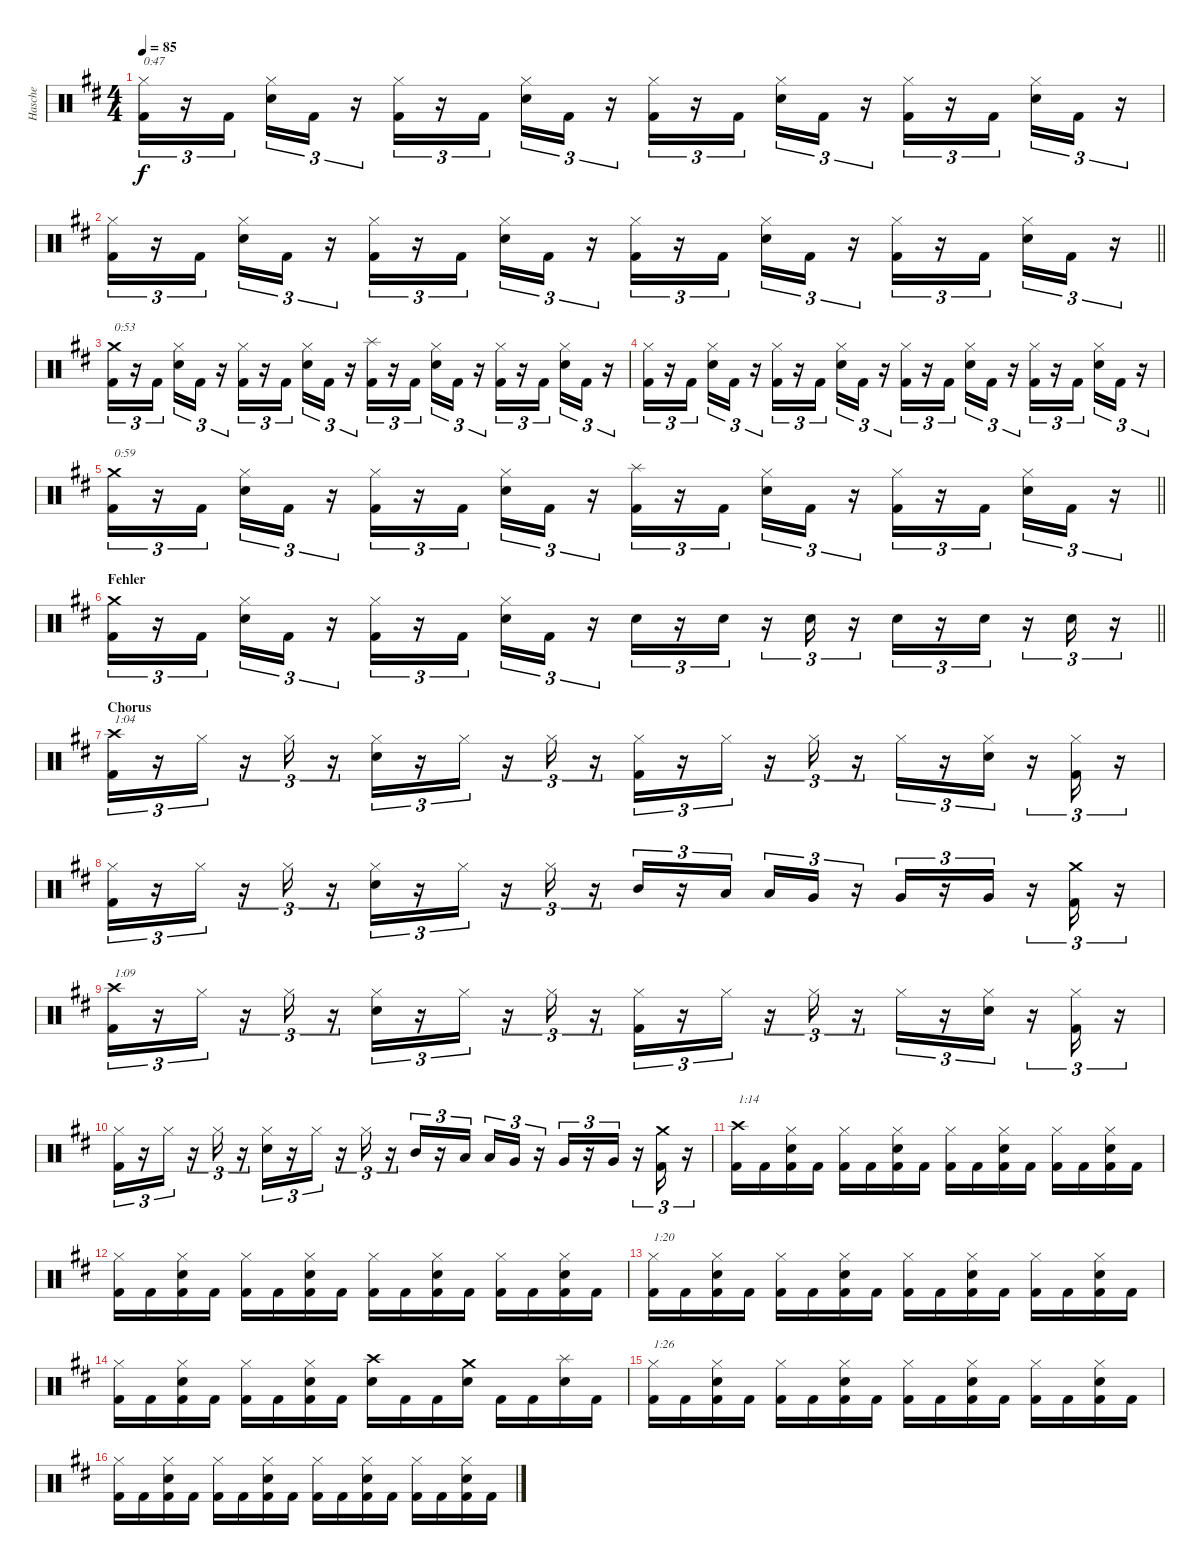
\track ("Hasche" "Hasche") {instrument percussion}
\staff {score}
\articulation defaults
\ts (4 4)
\tempo 85
\clef neutral
\ks bminor
("Hi-Hat (closed)" "Kick (hit) 2").16{tu (3 2) txt "0:47" dy f} r.16{tu (3 2)} "Kick (hit) 2".16{tu (3 2) beam splitsecondary} ("Hi-Hat (closed)" "Snare (hit) 2").16{tu (3 2)} "Kick (hit) 2".16{tu (3 2)} r.16{tu (3 2)} ("Hi-Hat (closed)" "Kick (hit) 2").16{tu (3 2)} r.16{tu (3 2)} "Kick (hit) 2".16{tu (3 2) beam splitsecondary} ("Hi-Hat (closed)" "Snare (hit) 2").16{tu (3 2)} "Kick (hit) 2".16{tu (3 2)} r.16{tu (3 2)} ("Hi-Hat (closed)" "Kick (hit) 2").16{tu (3 2)} r.16{tu (3 2)} "Kick (hit) 2".16{tu (3 2) beam splitsecondary} ("Hi-Hat (closed)" "Snare (hit) 2").16{tu (3 2)} "Kick (hit) 2".16{tu (3 2)} r.16{tu (3 2)} ("Hi-Hat (closed)" "Kick (hit) 2").16{tu (3 2)} r.16{tu (3 2)} "Kick (hit) 2".16{tu (3 2) beam splitsecondary} ("Hi-Hat (closed)" "Snare (hit) 2").16{tu (3 2)} "Kick (hit) 2".16{tu (3 2)} r.16{tu (3 2)} |
\barLineRight lightlight
("Hi-Hat (closed)" "Kick (hit) 2").16{tu (3 2)} r.16{tu (3 2)} "Kick (hit) 2".16{tu (3 2) beam splitsecondary} ("Hi-Hat (closed)" "Snare (hit) 2").16{tu (3 2)} "Kick (hit) 2".16{tu (3 2)} r.16{tu (3 2)} ("Hi-Hat (closed)" "Kick (hit) 2").16{tu (3 2)} r.16{tu (3 2)} "Kick (hit) 2".16{tu (3 2) beam splitsecondary} ("Hi-Hat (closed)" "Snare (hit) 2").16{tu (3 2)} "Kick (hit) 2".16{tu (3 2)} r.16{tu (3 2)} ("Hi-Hat (closed)" "Kick (hit) 2").16{tu (3 2)} r.16{tu (3 2)} "Kick (hit) 2".16{tu (3 2) beam splitsecondary} ("Hi-Hat (closed)" "Snare (hit) 2").16{tu (3 2)} "Kick (hit) 2".16{tu (3 2)} r.16{tu (3 2)} ("Hi-Hat (closed)" "Kick (hit) 2").16{tu (3 2)} r.16{tu (3 2)} "Kick (hit) 2".16{tu (3 2) beam splitsecondary} ("Hi-Hat (closed)" "Snare (hit) 2").16{tu (3 2)} "Kick (hit) 2".16{tu (3 2)} r.16{tu (3 2)} |
("Crash medium (hit)" "Kick (hit) 2").16{tu (3 2) txt "0:53"} r.16{tu (3 2)} "Kick (hit) 2".16{tu (3 2) beam splitsecondary} ("Hi-Hat (closed)" "Snare (hit) 2").16{tu (3 2)} "Kick (hit) 2".16{tu (3 2)} r.16{tu (3 2)} ("Hi-Hat (closed)" "Kick (hit) 2").16{tu (3 2)} r.16{tu (3 2)} "Kick (hit) 2".16{tu (3 2) beam splitsecondary} ("Hi-Hat (closed)" "Snare (hit) 2").16{tu (3 2)} "Kick (hit) 2".16{tu (3 2)} r.16{tu (3 2)} ("Splash (hit)" "Kick (hit) 2").16{tu (3 2)} r.16{tu (3 2)} "Kick (hit) 2".16{tu (3 2) beam splitsecondary} ("Hi-Hat (closed)" "Snare (hit) 2").16{tu (3 2)} "Kick (hit) 2".16{tu (3 2)} r.16{tu (3 2)} ("Hi-Hat (closed)" "Kick (hit) 2").16{tu (3 2)} r.16{tu (3 2)} "Kick (hit) 2".16{tu (3 2) beam splitsecondary} ("Hi-Hat (closed)" "Snare (hit) 2").16{tu (3 2)} "Kick (hit) 2".16{tu (3 2)} r.16{tu (3 2)} |
("Hi-Hat (closed)" "Kick (hit) 2").16{tu (3 2)} r.16{tu (3 2)} "Kick (hit) 2".16{tu (3 2) beam splitsecondary} ("Hi-Hat (closed)" "Snare (hit) 2").16{tu (3 2)} "Kick (hit) 2".16{tu (3 2)} r.16{tu (3 2)} ("Hi-Hat (closed)" "Kick (hit) 2").16{tu (3 2)} r.16{tu (3 2)} "Kick (hit) 2".16{tu (3 2) beam splitsecondary} ("Hi-Hat (closed)" "Snare (hit) 2").16{tu (3 2)} "Kick (hit) 2".16{tu (3 2)} r.16{tu (3 2)} ("Hi-Hat (closed)" "Kick (hit) 2").16{tu (3 2)} r.16{tu (3 2)} "Kick (hit) 2".16{tu (3 2) beam splitsecondary} ("Hi-Hat (closed)" "Snare (hit) 2").16{tu (3 2)} "Kick (hit) 2".16{tu (3 2)} r.16{tu (3 2)} ("Hi-Hat (closed)" "Kick (hit) 2").16{tu (3 2)} r.16{tu (3 2)} "Kick (hit) 2".16{tu (3 2) beam splitsecondary} ("Hi-Hat (closed)" "Snare (hit) 2").16{tu (3 2)} "Kick (hit) 2".16{tu (3 2)} r.16{tu (3 2)} |
\barLineRight lightlight
("Crash medium (hit)" "Kick (hit) 2").16{tu (3 2) txt "0:59"} r.16{tu (3 2)} "Kick (hit) 2".16{tu (3 2) beam splitsecondary} ("Hi-Hat (closed)" "Snare (hit) 2").16{tu (3 2)} "Kick (hit) 2".16{tu (3 2)} r.16{tu (3 2)} ("Hi-Hat (closed)" "Kick (hit) 2").16{tu (3 2)} r.16{tu (3 2)} "Kick (hit) 2".16{tu (3 2) beam splitsecondary} ("Hi-Hat (closed)" "Snare (hit) 2").16{tu (3 2)} "Kick (hit) 2".16{tu (3 2)} r.16{tu (3 2)} ("Splash (hit)" "Kick (hit) 2").16{tu (3 2)} r.16{tu (3 2)} "Kick (hit) 2".16{tu (3 2) beam splitsecondary} ("Hi-Hat (closed)" "Snare (hit) 2").16{tu (3 2)} "Kick (hit) 2".16{tu (3 2)} r.16{tu (3 2)} ("Hi-Hat (closed)" "Kick (hit) 2").16{tu (3 2)} r.16{tu (3 2)} "Kick (hit) 2".16{tu (3 2) beam splitsecondary} ("Hi-Hat (closed)" "Snare (hit) 2").16{tu (3 2)} "Kick (hit) 2".16{tu (3 2)} r.16{tu (3 2)} |
\section ("" "Fehler")
\barLineRight lightlight
("Crash medium (hit)" "Kick (hit) 2").16{tu (3 2)} r.16{tu (3 2)} "Kick (hit) 2".16{tu (3 2) beam splitsecondary} ("Hi-Hat (closed)" "Snare (hit) 2").16{tu (3 2)} "Kick (hit) 2".16{tu (3 2)} r.16{tu (3 2)} ("Hi-Hat (closed)" "Kick (hit) 2").16{tu (3 2)} r.16{tu (3 2)} "Kick (hit) 2".16{tu (3 2) beam splitsecondary} ("Hi-Hat (closed)" "Snare (hit) 2").16{tu (3 2)} "Kick (hit) 2".16{tu (3 2)} r.16{tu (3 2)} "Snare (hit) 2".16{tu (3 2)} r.16{tu (3 2)} "Snare (hit) 2".16{tu (3 2)} r.16{tu (3 2)} "Snare (hit) 2".16{tu (3 2)} r.16{tu (3 2)} "Snare (hit) 2".16{tu (3 2)} r.16{tu (3 2)} "Snare (hit) 2".16{tu (3 2)} r.16{tu (3 2)} "Snare (hit) 2".16{tu (3 2)} r.16{tu (3 2)} |
\section ("" "Chorus")
("Crash high (hit)" "Kick (hit) 2").16{tu (3 2) txt "1:04"} r.16{tu (3 2)} "Hi-Hat (closed)".16{tu (3 2)} r.16{tu (3 2)} "Hi-Hat (closed)".16{tu (3 2)} r.16{tu (3 2)} ("Hi-Hat (closed)" "Snare (hit) 2").16{tu (3 2)} r.16{tu (3 2)} "Hi-Hat (closed)".16{tu (3 2)} r.16{tu (3 2)} "Hi-Hat (closed)".16{tu (3 2)} r.16{tu (3 2)} ("Hi-Hat (closed)" "Kick (hit) 2").16{tu (3 2)} r.16{tu (3 2)} "Hi-Hat (closed)".16{tu (3 2)} r.16{tu (3 2)} "Hi-Hat (closed)".16{tu (3 2)} r.16{tu (3 2)} "Hi-Hat (closed)".16{tu (3 2)} r.16{tu (3 2)} ("Hi-Hat (closed)" "Snare (hit) 2").16{tu (3 2)} r.16{tu (3 2)} ("Hi-Hat (closed)" "Kick (hit) 2").16{tu (3 2)} r.16{tu (3 2)} |
("Hi-Hat (closed)" "Kick (hit) 2").16{tu (3 2)} r.16{tu (3 2)} "Hi-Hat (closed)".16{tu (3 2)} r.16{tu (3 2)} "Hi-Hat (closed)".16{tu (3 2)} r.16{tu (3 2)} ("Hi-Hat (closed)" "Snare (hit) 2").16{tu (3 2)} r.16{tu (3 2)} "Hi-Hat (closed)".16{tu (3 2)} r.16{tu (3 2)} "Hi-Hat (closed)".16{tu (3 2)} r.16{tu (3 2)} "Mid Tom (hit)".16{tu (3 2)} r.16{tu (3 2)} "Low Tom (hit)".16{tu (3 2) beam splitsecondary} "Low Tom (hit)".16{tu (3 2)} "Very Low Tom (hit)".16{tu (3 2)} r.16{tu (3 2)} "Very Low Tom (hit)".16{tu (3 2)} r.16{tu (3 2)} "Very Low Tom (hit)".16{tu (3 2)} r.16{tu (3 2)} ("Crash medium (hit)" "Kick (hit) 2").16{tu (3 2)} r.16{tu (3 2)} |
("Crash high (hit)" "Kick (hit) 2").16{tu (3 2) txt "1:09"} r.16{tu (3 2)} "Hi-Hat (closed)".16{tu (3 2)} r.16{tu (3 2)} "Hi-Hat (closed)".16{tu (3 2)} r.16{tu (3 2)} ("Hi-Hat (closed)" "Snare (hit) 2").16{tu (3 2)} r.16{tu (3 2)} "Hi-Hat (closed)".16{tu (3 2)} r.16{tu (3 2)} "Hi-Hat (closed)".16{tu (3 2)} r.16{tu (3 2)} ("Hi-Hat (closed)" "Kick (hit) 2").16{tu (3 2)} r.16{tu (3 2)} "Hi-Hat (closed)".16{tu (3 2)} r.16{tu (3 2)} "Hi-Hat (closed)".16{tu (3 2)} r.16{tu (3 2)} "Hi-Hat (closed)".16{tu (3 2)} r.16{tu (3 2)} ("Hi-Hat (closed)" "Snare (hit) 2").16{tu (3 2)} r.16{tu (3 2)} ("Hi-Hat (closed)" "Kick (hit) 2").16{tu (3 2)} r.16{tu (3 2)} |
("Hi-Hat (closed)" "Kick (hit) 2").16{tu (3 2)} r.16{tu (3 2)} "Hi-Hat (closed)".16{tu (3 2)} r.16{tu (3 2)} "Hi-Hat (closed)".16{tu (3 2)} r.16{tu (3 2)} ("Hi-Hat (closed)" "Snare (hit) 2").16{tu (3 2)} r.16{tu (3 2)} "Hi-Hat (closed)".16{tu (3 2)} r.16{tu (3 2)} "Hi-Hat (closed)".16{tu (3 2)} r.16{tu (3 2)} "Mid Tom (hit)".16{tu (3 2)} r.16{tu (3 2)} "Low Tom (hit)".16{tu (3 2) beam splitsecondary} "Low Tom (hit)".16{tu (3 2)} "Very Low Tom (hit)".16{tu (3 2)} r.16{tu (3 2)} "Very Low Tom (hit)".16{tu (3 2)} r.16{tu (3 2)} "Very Low Tom (hit)".16{tu (3 2)} r.16{tu (3 2)} ("Crash medium (hit)" "Kick (hit) 2").16{tu (3 2)} r.16{tu (3 2)} |
("Crash high (hit)" "Kick (hit) 2").16{txt "1:14"} "Kick (hit) 2".16 ("Hi-Hat (closed)" "Snare (hit) 2" "Kick (hit) 2").16 "Kick (hit) 2".16 ("Hi-Hat (closed)" "Kick (hit) 2").16 "Kick (hit) 2".16 ("Hi-Hat (closed)" "Snare (hit) 2" "Kick (hit) 2").16 "Kick (hit) 2".16 ("Hi-Hat (closed)" "Kick (hit) 2").16 "Kick (hit) 2".16 ("Hi-Hat (closed)" "Snare (hit) 2" "Kick (hit) 2").16 "Kick (hit) 2".16 ("Hi-Hat (closed)" "Kick (hit) 2").16 "Kick (hit) 2".16 ("Hi-Hat (closed)" "Snare (hit) 2" "Kick (hit) 2").16 "Kick (hit) 2".16 |
("Hi-Hat (closed)" "Kick (hit) 2").16 "Kick (hit) 2".16 ("Hi-Hat (closed)" "Snare (hit) 2" "Kick (hit) 2").16 "Kick (hit) 2".16 ("Hi-Hat (closed)" "Kick (hit) 2").16 "Kick (hit) 2".16 ("Hi-Hat (closed)" "Snare (hit) 2" "Kick (hit) 2").16 "Kick (hit) 2".16 ("Hi-Hat (closed)" "Kick (hit) 2").16 "Kick (hit) 2".16 ("Hi-Hat (closed)" "Snare (hit) 2" "Kick (hit) 2").16 "Kick (hit) 2".16 ("Hi-Hat (closed)" "Kick (hit) 2").16 "Kick (hit) 2".16 ("Hi-Hat (closed)" "Snare (hit) 2" "Kick (hit) 2").16 "Kick (hit) 2".16 |
("Hi-Hat (closed)" "Kick (hit) 2").16{txt "1:20"} "Kick (hit) 2".16 ("Hi-Hat (closed)" "Snare (hit) 2" "Kick (hit) 2").16 "Kick (hit) 2".16 ("Hi-Hat (closed)" "Kick (hit) 2").16 "Kick (hit) 2".16 ("Hi-Hat (closed)" "Snare (hit) 2" "Kick (hit) 2").16 "Kick (hit) 2".16 ("Hi-Hat (closed)" "Kick (hit) 2").16 "Kick (hit) 2".16 ("Hi-Hat (closed)" "Snare (hit) 2" "Kick (hit) 2").16 "Kick (hit) 2".16 ("Hi-Hat (closed)" "Kick (hit) 2").16 "Kick (hit) 2".16 ("Hi-Hat (closed)" "Snare (hit) 2" "Kick (hit) 2").16 "Kick (hit) 2".16 |
("Hi-Hat (closed)" "Kick (hit) 2").16 "Kick (hit) 2".16 ("Hi-Hat (closed)" "Snare (hit) 2" "Kick (hit) 2").16 "Kick (hit) 2".16 ("Hi-Hat (closed)" "Kick (hit) 2").16 "Kick (hit) 2".16 ("Hi-Hat (closed)" "Snare (hit) 2" "Kick (hit) 2").16 "Kick (hit) 2".16 ("Crash high (hit)" "Snare (hit) 2").16 "Kick (hit) 2".16 "Kick (hit) 2".16 ("Crash medium (hit)" "Snare (hit) 2").16 "Kick (hit) 2".16 "Kick (hit) 2".16 ("Splash (hit)" "Snare (hit) 2").16 "Kick (hit) 2".16 |
("Hi-Hat (closed)" "Kick (hit) 2").16{txt "1:26"} "Kick (hit) 2".16 ("Hi-Hat (closed)" "Snare (hit) 2" "Kick (hit) 2").16 "Kick (hit) 2".16 ("Hi-Hat (closed)" "Kick (hit) 2").16 "Kick (hit) 2".16 ("Hi-Hat (closed)" "Snare (hit) 2" "Kick (hit) 2").16 "Kick (hit) 2".16 ("Hi-Hat (closed)" "Kick (hit) 2").16 "Kick (hit) 2".16 ("Hi-Hat (closed)" "Snare (hit) 2" "Kick (hit) 2").16 "Kick (hit) 2".16 ("Hi-Hat (closed)" "Kick (hit) 2").16 "Kick (hit) 2".16 ("Hi-Hat (closed)" "Snare (hit) 2" "Kick (hit) 2").16 "Kick (hit) 2".16 |
("Hi-Hat (closed)" "Kick (hit) 2").16 "Kick (hit) 2".16 ("Hi-Hat (closed)" "Snare (hit) 2" "Kick (hit) 2").16 "Kick (hit) 2".16 ("Hi-Hat (closed)" "Kick (hit) 2").16 "Kick (hit) 2".16 ("Hi-Hat (closed)" "Snare (hit) 2" "Kick (hit) 2").16 "Kick (hit) 2".16 ("Hi-Hat (closed)" "Kick (hit) 2").16 "Kick (hit) 2".16 ("Hi-Hat (closed)" "Snare (hit) 2" "Kick (hit) 2").16 "Kick (hit) 2".16 ("Hi-Hat (closed)" "Kick (hit) 2").16 "Kick (hit) 2".16 ("Hi-Hat (closed)" "Snare (hit) 2" "Kick (hit) 2").16 "Kick (hit) 2".16
